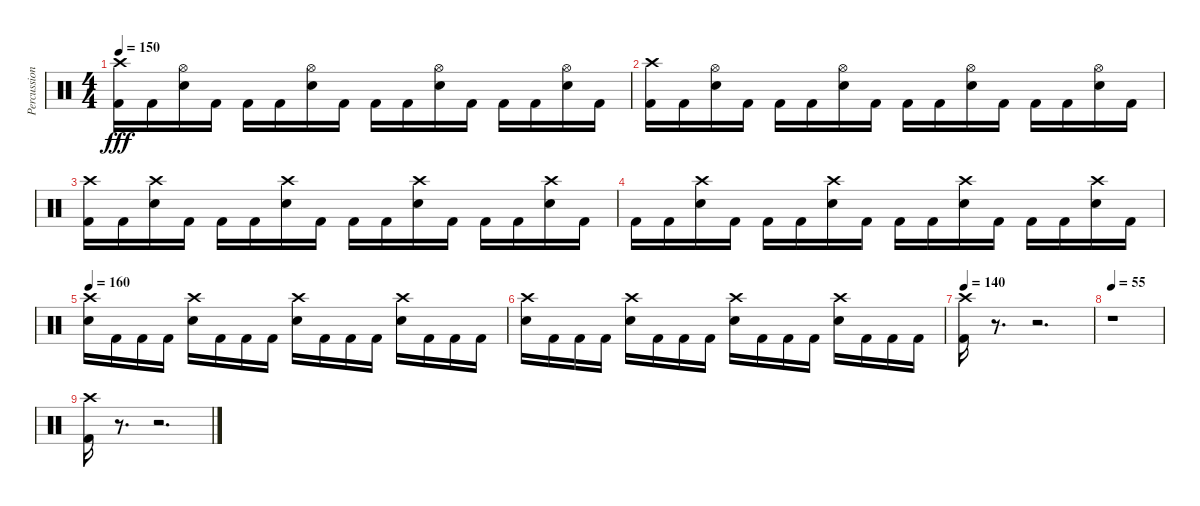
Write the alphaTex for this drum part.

\track ("Percussion" "Percussion") {instrument percussion}
\staff {score}
\articulation defaults
\ts (4 4)
\tempo 150
\clef neutral
\ks c
("Kick (hit) 2" "Crash high (hit)").16{dy fff} "Kick (hit) 2".16 ("Snare (hit) 2" "Hi-Hat (open)").16 "Kick (hit) 2".16 "Kick (hit) 2".16 "Kick (hit) 2".16 ("Snare (hit) 2" "Hi-Hat (open)").16 "Kick (hit) 2".16 "Kick (hit) 2".16 "Kick (hit) 2".16 ("Snare (hit) 2" "Hi-Hat (open)").16 "Kick (hit) 2".16 "Kick (hit) 2".16 "Kick (hit) 2".16 ("Snare (hit) 2" "Hi-Hat (open)").16 "Kick (hit) 2".16 |
("Kick (hit) 2" "Crash high (hit)").16 "Kick (hit) 2".16 ("Snare (hit) 2" "Hi-Hat (open)").16 "Kick (hit) 2".16 "Kick (hit) 2".16 "Kick (hit) 2".16 ("Snare (hit) 2" "Hi-Hat (open)").16 "Kick (hit) 2".16 "Kick (hit) 2".16 "Kick (hit) 2".16 ("Snare (hit) 2" "Hi-Hat (open)").16 "Kick (hit) 2".16 "Kick (hit) 2".16 "Kick (hit) 2".16 ("Snare (hit) 2" "Hi-Hat (open)").16 "Kick (hit) 2".16 |
("Kick (hit) 2" "Crash high (hit)").16 "Kick (hit) 2".16 ("Snare (hit) 2" "Crash high (hit)").16 "Kick (hit) 2".16 "Kick (hit) 2".16 "Kick (hit) 2".16 ("Snare (hit) 2" "Crash high (hit)").16 "Kick (hit) 2".16 "Kick (hit) 2".16 "Kick (hit) 2".16 ("Snare (hit) 2" "Crash high (hit)").16 "Kick (hit) 2".16 "Kick (hit) 2".16 "Kick (hit) 2".16 ("Snare (hit) 2" "Crash high (hit)").16 "Kick (hit) 2".16 |
"Kick (hit) 2".16 "Kick (hit) 2".16 ("Snare (hit) 2" "Crash high (hit)").16 "Kick (hit) 2".16 "Kick (hit) 2".16 "Kick (hit) 2".16 ("Snare (hit) 2" "Crash high (hit)").16 "Kick (hit) 2".16 "Kick (hit) 2".16 "Kick (hit) 2".16 ("Snare (hit) 2" "Crash high (hit)").16 "Kick (hit) 2".16 "Kick (hit) 2".16 "Kick (hit) 2".16 ("Snare (hit) 2" "Crash high (hit)").16 "Kick (hit) 2".16 |
\tempo 160
("Snare (hit) 2" "Crash high (hit)").16 "Kick (hit) 2".16 "Kick (hit) 2".16 "Kick (hit) 2".16 ("Snare (hit) 2" "Crash high (hit)").16 "Kick (hit) 2".16 "Kick (hit) 2".16 "Kick (hit) 2".16 ("Snare (hit) 2" "Crash high (hit)").16 "Kick (hit) 2".16 "Kick (hit) 2".16 "Kick (hit) 2".16 ("Snare (hit) 2" "Crash high (hit)").16 "Kick (hit) 2".16 "Kick (hit) 2".16 "Kick (hit) 2".16 |
("Snare (hit) 2" "Crash high (hit)").16 "Kick (hit) 2".16 "Kick (hit) 2".16 "Kick (hit) 2".16 ("Snare (hit) 2" "Crash high (hit)").16 "Kick (hit) 2".16 "Kick (hit) 2".16 "Kick (hit) 2".16 ("Snare (hit) 2" "Crash high (hit)").16 "Kick (hit) 2".16 "Kick (hit) 2".16 "Kick (hit) 2".16 ("Snare (hit) 2" "Crash high (hit)").16 "Kick (hit) 2".16 "Kick (hit) 2".16 "Kick (hit) 2".16 |
\tempo 69
\tempo 140
("Kick (hit) 2" "Crash high (hit)").16 r.8{d} r.2{d} |
\tempo 55
r.1 |
("Kick (hit) 2" "Crash high (hit)").16 r.8{d} r.2{d}
